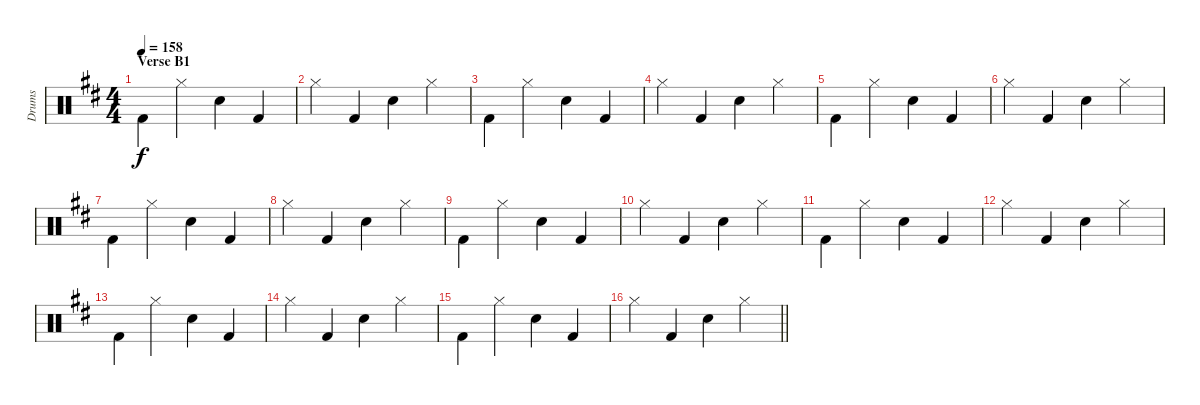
\track ("Drums" "Drums") {instrument percussion}
\staff {score}
\articulation defaults
\ts (4 4)
\section ("" "Verse B1")
\tempo 158
\clef neutral
\ks d "Kick (hit) 2".4{dy f beam merge} "Hi-Hat (closed)".4 "Snare (hit) 2".4 "Kick (hit) 2".4
|
"Hi-Hat (closed)".4 "Kick (hit) 2".4 "Snare (hit) 2".4 "Hi-Hat (closed)".4 |
"Kick (hit) 2".4{beam merge} "Hi-Hat (closed)".4 "Snare (hit) 2".4 "Kick (hit) 2".4 |
"Hi-Hat (closed)".4 "Kick (hit) 2".4 "Snare (hit) 2".4 "Hi-Hat (closed)".4 |
"Kick (hit) 2".4{beam merge} "Hi-Hat (closed)".4 "Snare (hit) 2".4 "Kick (hit) 2".4 |
"Hi-Hat (closed)".4 "Kick (hit) 2".4 "Snare (hit) 2".4 "Hi-Hat (closed)".4 |
"Kick (hit) 2".4{beam merge} "Hi-Hat (closed)".4 "Snare (hit) 2".4 "Kick (hit) 2".4 |
"Hi-Hat (closed)".4 "Kick (hit) 2".4 "Snare (hit) 2".4 "Hi-Hat (closed)".4 |
"Kick (hit) 2".4{beam merge} "Hi-Hat (closed)".4 "Snare (hit) 2".4 "Kick (hit) 2".4 |
"Hi-Hat (closed)".4 "Kick (hit) 2".4 "Snare (hit) 2".4 "Hi-Hat (closed)".4 |
"Kick (hit) 2".4{beam merge} "Hi-Hat (closed)".4 "Snare (hit) 2".4 "Kick (hit) 2".4 |
"Hi-Hat (closed)".4 "Kick (hit) 2".4 "Snare (hit) 2".4 "Hi-Hat (closed)".4 |
"Kick (hit) 2".4{beam merge} "Hi-Hat (closed)".4 "Snare (hit) 2".4 "Kick (hit) 2".4 |
"Hi-Hat (closed)".4 "Kick (hit) 2".4 "Snare (hit) 2".4 "Hi-Hat (closed)".4 |
"Kick (hit) 2".4{beam merge} "Hi-Hat (closed)".4 "Snare (hit) 2".4 "Kick (hit) 2".4 |
\barLineRight lightlight "Hi-Hat (closed)".4 "Kick (hit) 2".4 "Snare (hit) 2".4 "Hi-Hat (closed)".4
